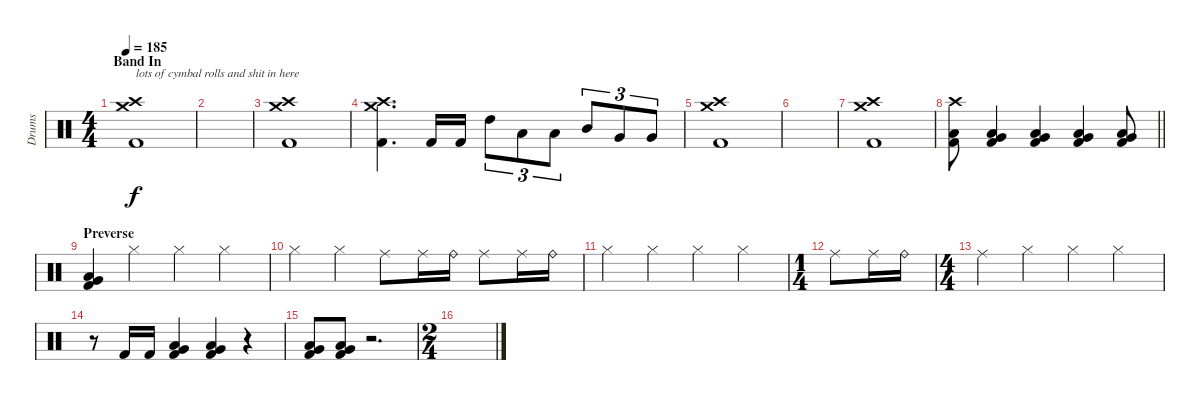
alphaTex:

\track ("Drums" "Drums") {instrument percussion}
\staff {score}
\articulation defaults
\ts (4 4)
\section ("" "Band In")
\tempo 185
\clef neutral
\ks c
("Crash high (hit)" "Crash medium (hit)" "Kick (hit) 2").1{txt "lots of cymbal rolls and shit in here" dy f} |
|
("Crash high (hit)" "Crash medium (hit)" "Kick (hit) 2").1 |
("Crash high (hit)" "Crash medium (hit)" "Kick (hit) 2").4{d} "Kick (hit) 2".16 "Kick (hit) 2".16 "High Tom (hit)".8{tu (3 2)} "Low Tom (hit)".8{tu (3 2)} "Low Tom (hit)".8{tu (3 2)} "Mid Tom (hit)".8{tu (3 2)} "Very Low Tom (hit)".8{tu (3 2)} "Very Low Tom (hit)".8{tu (3 2)} |
("Crash high (hit)" "Crash medium (hit)" "Kick (hit) 2").1 |
|
("Crash high (hit)" "Crash medium (hit)" "Kick (hit) 2").1 |
\barLineRight lightlight
("Crash high (hit)" "Low Floor Tom (hit)" "Kick (hit) 2").8 ("Low Floor Tom (hit)" "Very Low Tom (hit)" "Kick (hit) 2").4 ("Low Floor Tom (hit)" "Very Low Tom (hit)" "Kick (hit) 2").4 ("Low Floor Tom (hit)" "Very Low Tom (hit)" "Kick (hit) 2").4 ("Low Floor Tom (hit)" "Very Low Tom (hit)" "Kick (hit) 2").8 |
\section ("" "Preverse")
("Low Floor Tom (hit)" "Very Low Tom (hit)" "Kick (hit) 2").4 "Hi-Hat (closed)".4 "Hi-Hat (closed)".4 "Hi-Hat (closed)".4 |
"Hi-Hat (closed)".4 "Hi-Hat (closed)".4 "Ride (middle)".8 "Ride (middle)".16 "Ride (bell)".16 "Ride (middle)".8 "Ride (middle)".16 "Ride (bell)".16 |
"Hi-Hat (closed)".4 "Hi-Hat (closed)".4 "Hi-Hat (closed)".4 "Hi-Hat (closed)".4 |
\ts (1 4)
"Ride (middle)".8 "Ride (middle)".16 "Ride (bell)".16 |
\ts (4 4)
"Ride (middle)".4 "Hi-Hat (closed)".4 "Hi-Hat (closed)".4 "Hi-Hat (closed)".4 |
r.8 "Kick (hit) 2".16 "Kick (hit) 2".16 ("Low Floor Tom (hit)" "Very Low Tom (hit)" "Kick (hit) 2").4 ("Low Floor Tom (hit)" "Very Low Tom (hit)" "Kick (hit) 2").4 r.4 |
("Low Floor Tom (hit)" "Very Low Tom (hit)" "Kick (hit) 2").8 ("Low Floor Tom (hit)" "Very Low Tom (hit)" "Kick (hit) 2").8 r.2{d} |
\ts (2 4)
